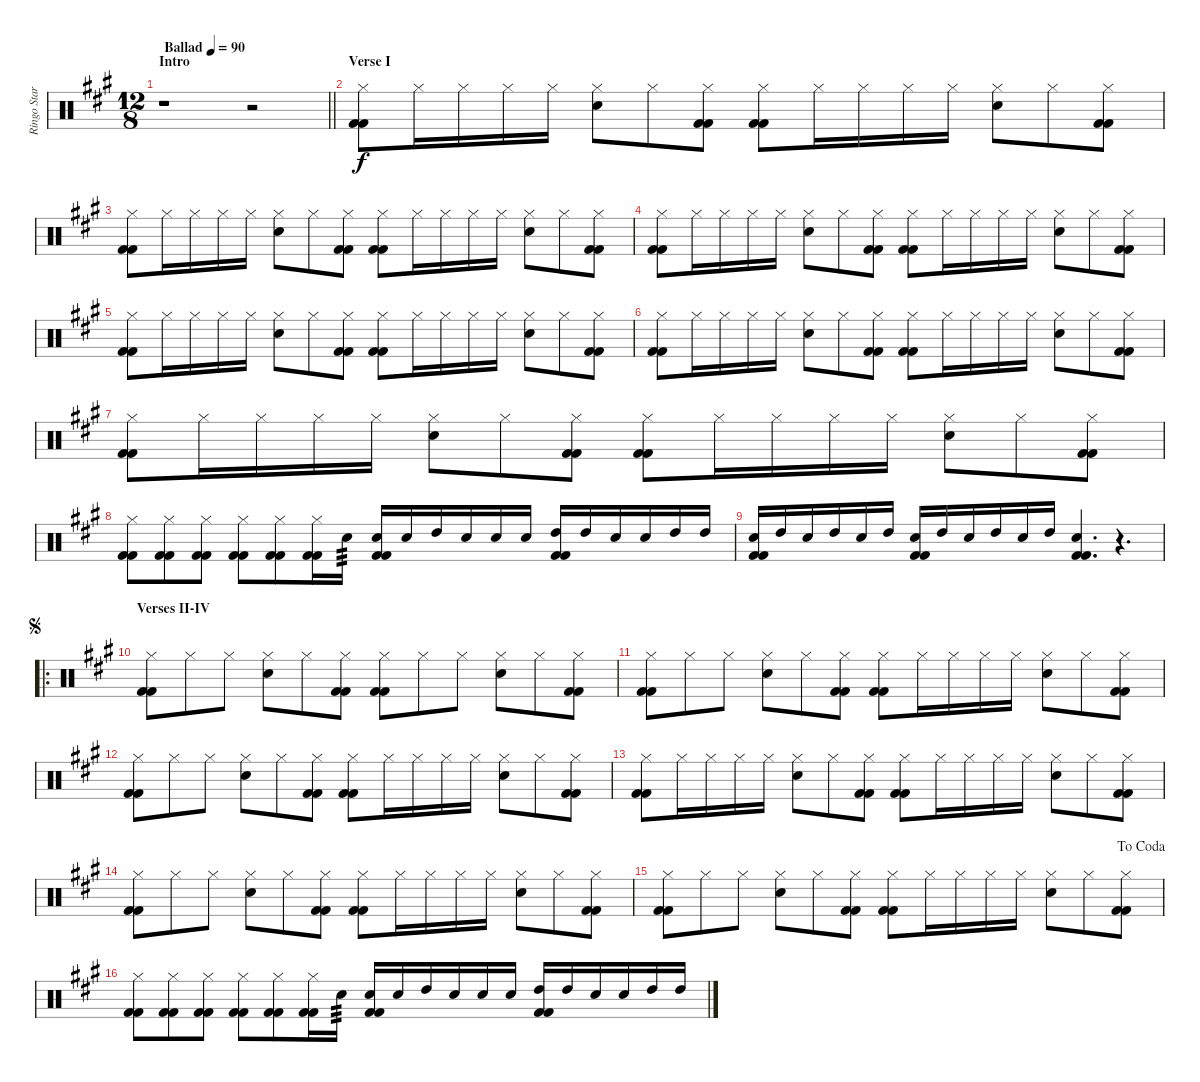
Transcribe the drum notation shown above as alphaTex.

\track ("Ringo Star's drums" "Ringo Star") {instrument percussion}
\staff {score}
\articulation defaults
\ts (12 8)
\section ("" "Intro")
\tempo (90 "Ballad")
\clef neutral
\barLineRight lightlight
\ks a
r.1{dy f} r.2 |
\section ("" "Verse I")
("Hi-Hat (closed)" "Kick (hit) 2" "Kick (hit) 2").8 "Hi-Hat (closed)".16 "Hi-Hat (closed)".16 "Hi-Hat (closed)".16 "Hi-Hat (closed)".16 ("Hi-Hat (closed)" "Snare (hit) 2").8 "Hi-Hat (closed)".8 ("Hi-Hat (closed)" "Kick (hit) 2" "Kick (hit) 2").8 ("Hi-Hat (closed)" "Kick (hit) 2" "Kick (hit) 2").8 "Hi-Hat (closed)".16 "Hi-Hat (closed)".16 "Hi-Hat (closed)".16 "Hi-Hat (closed)".16 ("Hi-Hat (closed)" "Snare (hit) 2").8 "Hi-Hat (closed)".8 ("Hi-Hat (closed)" "Kick (hit) 2" "Kick (hit) 2").8 |
("Hi-Hat (closed)" "Kick (hit) 2" "Kick (hit) 2").8 "Hi-Hat (closed)".16 "Hi-Hat (closed)".16 "Hi-Hat (closed)".16 "Hi-Hat (closed)".16 ("Hi-Hat (closed)" "Snare (hit) 2").8 "Hi-Hat (closed)".8 ("Hi-Hat (closed)" "Kick (hit) 2" "Kick (hit) 2").8 ("Hi-Hat (closed)" "Kick (hit) 2" "Kick (hit) 2").8 "Hi-Hat (closed)".16 "Hi-Hat (closed)".16 "Hi-Hat (closed)".16 "Hi-Hat (closed)".16 ("Hi-Hat (closed)" "Snare (hit) 2").8 "Hi-Hat (closed)".8 ("Hi-Hat (closed)" "Kick (hit) 2" "Kick (hit) 2").8 |
("Hi-Hat (closed)" "Kick (hit) 2" "Kick (hit) 2").8 "Hi-Hat (closed)".16 "Hi-Hat (closed)".16 "Hi-Hat (closed)".16 "Hi-Hat (closed)".16 ("Hi-Hat (closed)" "Snare (hit) 2").8 "Hi-Hat (closed)".8 ("Hi-Hat (closed)" "Kick (hit) 2" "Kick (hit) 2").8 ("Hi-Hat (closed)" "Kick (hit) 2" "Kick (hit) 2").8 "Hi-Hat (closed)".16 "Hi-Hat (closed)".16 "Hi-Hat (closed)".16 "Hi-Hat (closed)".16 ("Hi-Hat (closed)" "Snare (hit) 2").8 "Hi-Hat (closed)".8 ("Hi-Hat (closed)" "Kick (hit) 2" "Kick (hit) 2").8 |
("Hi-Hat (closed)" "Kick (hit) 2" "Kick (hit) 2").8 "Hi-Hat (closed)".16 "Hi-Hat (closed)".16 "Hi-Hat (closed)".16 "Hi-Hat (closed)".16 ("Hi-Hat (closed)" "Snare (hit) 2").8 "Hi-Hat (closed)".8 ("Hi-Hat (closed)" "Kick (hit) 2" "Kick (hit) 2").8 ("Hi-Hat (closed)" "Kick (hit) 2" "Kick (hit) 2").8 "Hi-Hat (closed)".16 "Hi-Hat (closed)".16 "Hi-Hat (closed)".16 "Hi-Hat (closed)".16 ("Hi-Hat (closed)" "Snare (hit) 2").8 "Hi-Hat (closed)".8 ("Hi-Hat (closed)" "Kick (hit) 2" "Kick (hit) 2").8 |
("Hi-Hat (closed)" "Kick (hit) 2" "Kick (hit) 2").8 "Hi-Hat (closed)".16 "Hi-Hat (closed)".16 "Hi-Hat (closed)".16 "Hi-Hat (closed)".16 ("Hi-Hat (closed)" "Snare (hit) 2").8 "Hi-Hat (closed)".8 ("Hi-Hat (closed)" "Kick (hit) 2" "Kick (hit) 2").8 ("Hi-Hat (closed)" "Kick (hit) 2" "Kick (hit) 2").8 "Hi-Hat (closed)".16 "Hi-Hat (closed)".16 "Hi-Hat (closed)".16 "Hi-Hat (closed)".16 ("Hi-Hat (closed)" "Snare (hit) 2").8 "Hi-Hat (closed)".8 ("Hi-Hat (closed)" "Kick (hit) 2" "Kick (hit) 2").8 |
("Hi-Hat (closed)" "Kick (hit) 2" "Kick (hit) 2").8 "Hi-Hat (closed)".16 "Hi-Hat (closed)".16 "Hi-Hat (closed)".16 "Hi-Hat (closed)".16 ("Hi-Hat (closed)" "Snare (hit) 2").8 "Hi-Hat (closed)".8 ("Hi-Hat (closed)" "Kick (hit) 2" "Kick (hit) 2").8 ("Hi-Hat (closed)" "Kick (hit) 2" "Kick (hit) 2").8 "Hi-Hat (closed)".16 "Hi-Hat (closed)".16 "Hi-Hat (closed)".16 "Hi-Hat (closed)".16 ("Hi-Hat (closed)" "Snare (hit) 2").8 "Hi-Hat (closed)".8 ("Hi-Hat (closed)" "Kick (hit) 2" "Kick (hit) 2").8 |
("Hi-Hat (closed)" "Kick (hit) 2" "Kick (hit) 2").8 ("Hi-Hat (closed)" "Kick (hit) 2" "Kick (hit) 2").8 ("Hi-Hat (closed)" "Kick (hit) 2" "Kick (hit) 2").8 ("Hi-Hat (closed)" "Kick (hit) 2" "Kick (hit) 2").8 ("Hi-Hat (closed)" "Kick (hit) 2" "Kick (hit) 2").8 ("Hi-Hat (closed)" "Kick (hit) 2" "Kick (hit) 2").16 "Snare (hit) 2".16{tp 3} ("Snare (hit) 2" "Kick (hit) 2" "Kick (hit) 2").16 "Snare (hit) 2".16 "High Tom (hit)".16 "Snare (hit) 2".16 "Snare (hit) 2".16 "Snare (hit) 2".16 ("High Tom (hit)" "Kick (hit) 2" "Kick (hit) 2").16 "High Tom (hit)".16 "Snare (hit) 2".16 "Snare (hit) 2".16 "High Tom (hit)".16 "High Tom (hit)".16 |
("Snare (hit) 2" "Kick (hit) 2" "Kick (hit) 2").16 "High Tom (hit)".16 "Snare (hit) 2".16 "High Tom (hit)".16 "Snare (hit) 2".16 "High Tom (hit)".16 ("Snare (hit) 2" "Kick (hit) 2" "Kick (hit) 2").16 "High Tom (hit)".16 "Snare (hit) 2".16 "High Tom (hit)".16 "Snare (hit) 2".16 "High Tom (hit)".16 ("Snare (hit) 2" "Kick (hit) 2" "Kick (hit) 2").4{d} r.4{d} |
\ro
\section ("" "Verses II-IV")
\jump segno
("Hi-Hat (closed)" "Kick (hit) 2" "Kick (hit) 2").8 "Hi-Hat (closed)".8 "Hi-Hat (closed)".8 ("Hi-Hat (closed)" "Snare (hit) 2").8 "Hi-Hat (closed)".8 ("Hi-Hat (closed)" "Kick (hit) 2" "Kick (hit) 2").8 ("Hi-Hat (closed)" "Kick (hit) 2" "Kick (hit) 2").8 "Hi-Hat (closed)".8 "Hi-Hat (closed)".8 ("Hi-Hat (closed)" "Snare (hit) 2").8 "Hi-Hat (closed)".8 ("Hi-Hat (closed)" "Kick (hit) 2" "Kick (hit) 2").8 |
("Hi-Hat (closed)" "Kick (hit) 2" "Kick (hit) 2").8 "Hi-Hat (closed)".8 "Hi-Hat (closed)".8 ("Hi-Hat (closed)" "Snare (hit) 2").8 "Hi-Hat (closed)".8 ("Hi-Hat (closed)" "Kick (hit) 2" "Kick (hit) 2").8 ("Hi-Hat (closed)" "Kick (hit) 2" "Kick (hit) 2").8 "Hi-Hat (closed)".16 "Hi-Hat (closed)".16 "Hi-Hat (closed)".16 "Hi-Hat (closed)".16 ("Hi-Hat (closed)" "Snare (hit) 2").8 "Hi-Hat (closed)".8 ("Hi-Hat (closed)" "Kick (hit) 2" "Kick (hit) 2").8 |
("Hi-Hat (closed)" "Kick (hit) 2" "Kick (hit) 2").8 "Hi-Hat (closed)".8 "Hi-Hat (closed)".8 ("Hi-Hat (closed)" "Snare (hit) 2").8 "Hi-Hat (closed)".8 ("Hi-Hat (closed)" "Kick (hit) 2" "Kick (hit) 2").8 ("Hi-Hat (closed)" "Kick (hit) 2" "Kick (hit) 2").8 "Hi-Hat (closed)".16 "Hi-Hat (closed)".16 "Hi-Hat (closed)".16 "Hi-Hat (closed)".16 ("Hi-Hat (closed)" "Snare (hit) 2").8 "Hi-Hat (closed)".8 ("Hi-Hat (closed)" "Kick (hit) 2" "Kick (hit) 2").8 |
("Hi-Hat (closed)" "Kick (hit) 2" "Kick (hit) 2").8 "Hi-Hat (closed)".16 "Hi-Hat (closed)".16 "Hi-Hat (closed)".16 "Hi-Hat (closed)".16 ("Hi-Hat (closed)" "Snare (hit) 2").8 "Hi-Hat (closed)".8 ("Hi-Hat (closed)" "Kick (hit) 2" "Kick (hit) 2").8 ("Hi-Hat (closed)" "Kick (hit) 2" "Kick (hit) 2").8 "Hi-Hat (closed)".16 "Hi-Hat (closed)".16 "Hi-Hat (closed)".16 "Hi-Hat (closed)".16 ("Hi-Hat (closed)" "Snare (hit) 2").8 "Hi-Hat (closed)".8 ("Hi-Hat (closed)" "Kick (hit) 2" "Kick (hit) 2").8 |
("Hi-Hat (closed)" "Kick (hit) 2" "Kick (hit) 2").8 "Hi-Hat (closed)".8 "Hi-Hat (closed)".8 ("Hi-Hat (closed)" "Snare (hit) 2").8 "Hi-Hat (closed)".8 ("Hi-Hat (closed)" "Kick (hit) 2" "Kick (hit) 2").8 ("Hi-Hat (closed)" "Kick (hit) 2" "Kick (hit) 2").8 "Hi-Hat (closed)".16 "Hi-Hat (closed)".16 "Hi-Hat (closed)".16 "Hi-Hat (closed)".16 ("Hi-Hat (closed)" "Snare (hit) 2").8 "Hi-Hat (closed)".8 ("Hi-Hat (closed)" "Kick (hit) 2" "Kick (hit) 2").8 |
\jump dacoda
("Hi-Hat (closed)" "Kick (hit) 2" "Kick (hit) 2").8 "Hi-Hat (closed)".8 "Hi-Hat (closed)".8 ("Hi-Hat (closed)" "Snare (hit) 2").8 "Hi-Hat (closed)".8 ("Hi-Hat (closed)" "Kick (hit) 2" "Kick (hit) 2").8 ("Hi-Hat (closed)" "Kick (hit) 2" "Kick (hit) 2").8 "Hi-Hat (closed)".16 "Hi-Hat (closed)".16 "Hi-Hat (closed)".16 "Hi-Hat (closed)".16 ("Hi-Hat (closed)" "Snare (hit) 2").8 "Hi-Hat (closed)".8 ("Hi-Hat (closed)" "Kick (hit) 2" "Kick (hit) 2").8 |
("Hi-Hat (closed)" "Kick (hit) 2" "Kick (hit) 2").8 ("Hi-Hat (closed)" "Kick (hit) 2" "Kick (hit) 2").8 ("Hi-Hat (closed)" "Kick (hit) 2" "Kick (hit) 2").8 ("Hi-Hat (closed)" "Kick (hit) 2" "Kick (hit) 2").8 ("Hi-Hat (closed)" "Kick (hit) 2" "Kick (hit) 2").8 ("Hi-Hat (closed)" "Kick (hit) 2" "Kick (hit) 2").16 "Snare (hit) 2".16{tp 3} ("Snare (hit) 2" "Kick (hit) 2" "Kick (hit) 2").16 "Snare (hit) 2".16 "High Tom (hit)".16 "Snare (hit) 2".16 "Snare (hit) 2".16 "Snare (hit) 2".16 ("High Tom (hit)" "Kick (hit) 2" "Kick (hit) 2").16 "High Tom (hit)".16 "Snare (hit) 2".16 "Snare (hit) 2".16 "High Tom (hit)".16 "High Tom (hit)".16
